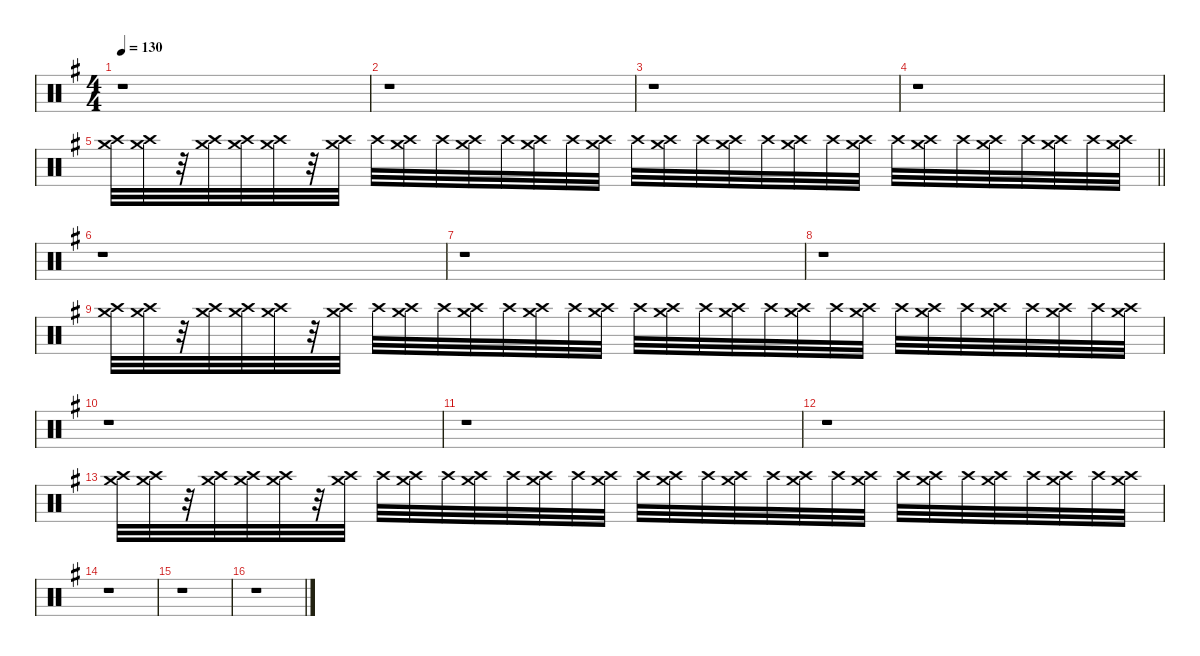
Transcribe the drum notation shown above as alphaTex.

\defaultSystemsLayout 4
\hideDynamics
\bracketExtendMode nobrackets
\singleTrackTrackNamePolicy hidden
\multiTrackTrackNamePolicy hidden
\otherSystemsTrackNameOrientation horizontal
\track ("Percussioni" "drm.") {instrument percussion}
\staff {score}
\articulation defaults
\ts (4 4)
\tempo 130
\clef neutral
\ks eminor
r.1{dy f beam Down} |
r.1{beam Down} |
r.1{beam Down} |
r.1{beam Down} |
\barLineRight lightlight
("Crash high (hit)"{acc forcenatural} "Crash medium (hit)"{acc forcenatural}).32{beam Down} ("Crash high (hit)"{acc forcenatural} "Crash medium (hit)"{acc forcenatural}).32{beam Down} r.32{beam Down} ("Crash high (hit)"{acc forcenatural} "Crash medium (hit)"{acc forcenatural}).32{beam Down} ("Crash high (hit)"{acc forcenatural} "Crash medium (hit)"{acc forcenatural}).32{beam Down} ("Crash high (hit)"{acc forcenatural} "Crash medium (hit)"{acc forcenatural}).32{beam Down} r.32{beam Down} ("Crash high (hit)"{acc forcenatural} "Crash medium (hit)"{acc forcenatural}).32{beam Down} "Crash high (hit)"{acc forcenatural}.32{beam Down} ("Crash high (hit)"{acc forcenatural} "Crash medium (hit)"{acc forcenatural}).32{beam Down} "Crash high (hit)"{acc forcenatural}.32{beam Down} ("Crash high (hit)"{acc forcenatural} "Crash medium (hit)"{acc forcenatural}).32{beam Down} "Crash high (hit)"{acc forcenatural}.32{beam Down} ("Crash high (hit)"{acc forcenatural} "Crash medium (hit)"{acc forcenatural}).32{beam Down} "Crash high (hit)"{acc forcenatural}.32{beam Down} ("Crash high (hit)"{acc forcenatural} "Crash medium (hit)"{acc forcenatural}).32{beam Down} "Crash high (hit)"{acc forcenatural}.32{beam Down} ("Crash high (hit)"{acc forcenatural} "Crash medium (hit)"{acc forcenatural}).32{beam Down} "Crash high (hit)"{acc forcenatural}.32{beam Down} ("Crash high (hit)"{acc forcenatural} "Crash medium (hit)"{acc forcenatural}).32{beam Down} "Crash high (hit)"{acc forcenatural}.32{beam Down} ("Crash high (hit)"{acc forcenatural} "Crash medium (hit)"{acc forcenatural}).32{beam Down} "Crash high (hit)"{acc forcenatural}.32{beam Down} ("Crash high (hit)"{acc forcenatural} "Crash medium (hit)"{acc forcenatural}).32{beam Down} "Crash high (hit)"{acc forcenatural}.32{beam Down} ("Crash high (hit)"{acc forcenatural} "Crash medium (hit)"{acc forcenatural}).32{beam Down} "Crash high (hit)"{acc forcenatural}.32{beam Down} ("Crash high (hit)"{acc forcenatural} "Crash medium (hit)"{acc forcenatural}).32{beam Down} "Crash high (hit)"{acc forcenatural}.32{beam Down} ("Crash high (hit)"{acc forcenatural} "Crash medium (hit)"{acc forcenatural}).32{beam Down} "Crash high (hit)"{acc forcenatural}.32{beam Down} ("Crash high (hit)"{acc forcenatural} "Crash medium (hit)"{acc forcenatural}).32{beam Down} |
r.1{beam Down} |
r.1{beam Down} |
r.1{beam Down} |
("Crash high (hit)"{acc forcenatural} "Crash medium (hit)"{acc forcenatural}).32{beam Down} ("Crash high (hit)"{acc forcenatural} "Crash medium (hit)"{acc forcenatural}).32{beam Down} r.32{beam Down} ("Crash high (hit)"{acc forcenatural} "Crash medium (hit)"{acc forcenatural}).32{beam Down} ("Crash high (hit)"{acc forcenatural} "Crash medium (hit)"{acc forcenatural}).32{beam Down} ("Crash high (hit)"{acc forcenatural} "Crash medium (hit)"{acc forcenatural}).32{beam Down} r.32{beam Down} ("Crash high (hit)"{acc forcenatural} "Crash medium (hit)"{acc forcenatural}).32{beam Down} "Crash high (hit)"{acc forcenatural}.32{beam Down} ("Crash high (hit)"{acc forcenatural} "Crash medium (hit)"{acc forcenatural}).32{beam Down} "Crash high (hit)"{acc forcenatural}.32{beam Down} ("Crash high (hit)"{acc forcenatural} "Crash medium (hit)"{acc forcenatural}).32{beam Down} "Crash high (hit)"{acc forcenatural}.32{beam Down} ("Crash high (hit)"{acc forcenatural} "Crash medium (hit)"{acc forcenatural}).32{beam Down} "Crash high (hit)"{acc forcenatural}.32{beam Down} ("Crash high (hit)"{acc forcenatural} "Crash medium (hit)"{acc forcenatural}).32{beam Down} "Crash high (hit)"{acc forcenatural}.32{beam Down} ("Crash high (hit)"{acc forcenatural} "Crash medium (hit)"{acc forcenatural}).32{beam Down} "Crash high (hit)"{acc forcenatural}.32{beam Down} ("Crash high (hit)"{acc forcenatural} "Crash medium (hit)"{acc forcenatural}).32{beam Down} "Crash high (hit)"{acc forcenatural}.32{beam Down} ("Crash high (hit)"{acc forcenatural} "Crash medium (hit)"{acc forcenatural}).32{beam Down} "Crash high (hit)"{acc forcenatural}.32{beam Down} ("Crash high (hit)"{acc forcenatural} "Crash medium (hit)"{acc forcenatural}).32{beam Down} "Crash high (hit)"{acc forcenatural}.32{beam Down} ("Crash high (hit)"{acc forcenatural} "Crash medium (hit)"{acc forcenatural}).32{beam Down} "Crash high (hit)"{acc forcenatural}.32{beam Down} ("Crash high (hit)"{acc forcenatural} "Crash medium (hit)"{acc forcenatural}).32{beam Down} "Crash high (hit)"{acc forcenatural}.32{beam Down} ("Crash high (hit)"{acc forcenatural} "Crash medium (hit)"{acc forcenatural}).32{beam Down} "Crash high (hit)"{acc forcenatural}.32{beam Down} ("Crash high (hit)"{acc forcenatural} "Crash medium (hit)"{acc forcenatural}).32{beam Down} |
r.1{beam Down} |
r.1{beam Down} |
r.1{beam Down} |
("Crash high (hit)"{acc forcenatural} "Crash medium (hit)"{acc forcenatural}).32{beam Down} ("Crash high (hit)"{acc forcenatural} "Crash medium (hit)"{acc forcenatural}).32{beam Down} r.32{beam Down} ("Crash high (hit)"{acc forcenatural} "Crash medium (hit)"{acc forcenatural}).32{beam Down} ("Crash high (hit)"{acc forcenatural} "Crash medium (hit)"{acc forcenatural}).32{beam Down} ("Crash high (hit)"{acc forcenatural} "Crash medium (hit)"{acc forcenatural}).32{beam Down} r.32{beam Down} ("Crash high (hit)"{acc forcenatural} "Crash medium (hit)"{acc forcenatural}).32{beam Down} "Crash high (hit)"{acc forcenatural}.32{beam Down} ("Crash high (hit)"{acc forcenatural} "Crash medium (hit)"{acc forcenatural}).32{beam Down} "Crash high (hit)"{acc forcenatural}.32{beam Down} ("Crash high (hit)"{acc forcenatural} "Crash medium (hit)"{acc forcenatural}).32{beam Down} "Crash high (hit)"{acc forcenatural}.32{beam Down} ("Crash high (hit)"{acc forcenatural} "Crash medium (hit)"{acc forcenatural}).32{beam Down} "Crash high (hit)"{acc forcenatural}.32{beam Down} ("Crash high (hit)"{acc forcenatural} "Crash medium (hit)"{acc forcenatural}).32{beam Down} "Crash high (hit)"{acc forcenatural}.32{beam Down} ("Crash high (hit)"{acc forcenatural} "Crash medium (hit)"{acc forcenatural}).32{beam Down} "Crash high (hit)"{acc forcenatural}.32{beam Down} ("Crash high (hit)"{acc forcenatural} "Crash medium (hit)"{acc forcenatural}).32{beam Down} "Crash high (hit)"{acc forcenatural}.32{beam Down} ("Crash high (hit)"{acc forcenatural} "Crash medium (hit)"{acc forcenatural}).32{beam Down} "Crash high (hit)"{acc forcenatural}.32{beam Down} ("Crash high (hit)"{acc forcenatural} "Crash medium (hit)"{acc forcenatural}).32{beam Down} "Crash high (hit)"{acc forcenatural}.32{beam Down} ("Crash high (hit)"{acc forcenatural} "Crash medium (hit)"{acc forcenatural}).32{beam Down} "Crash high (hit)"{acc forcenatural}.32{beam Down} ("Crash high (hit)"{acc forcenatural} "Crash medium (hit)"{acc forcenatural}).32{beam Down} "Crash high (hit)"{acc forcenatural}.32{beam Down} ("Crash high (hit)"{acc forcenatural} "Crash medium (hit)"{acc forcenatural}).32{beam Down} "Crash high (hit)"{acc forcenatural}.32{beam Down} ("Crash high (hit)"{acc forcenatural} "Crash medium (hit)"{acc forcenatural}).32{beam Down} |
r.1{beam Down} |
r.1{beam Down} |
r.1{beam Down}
